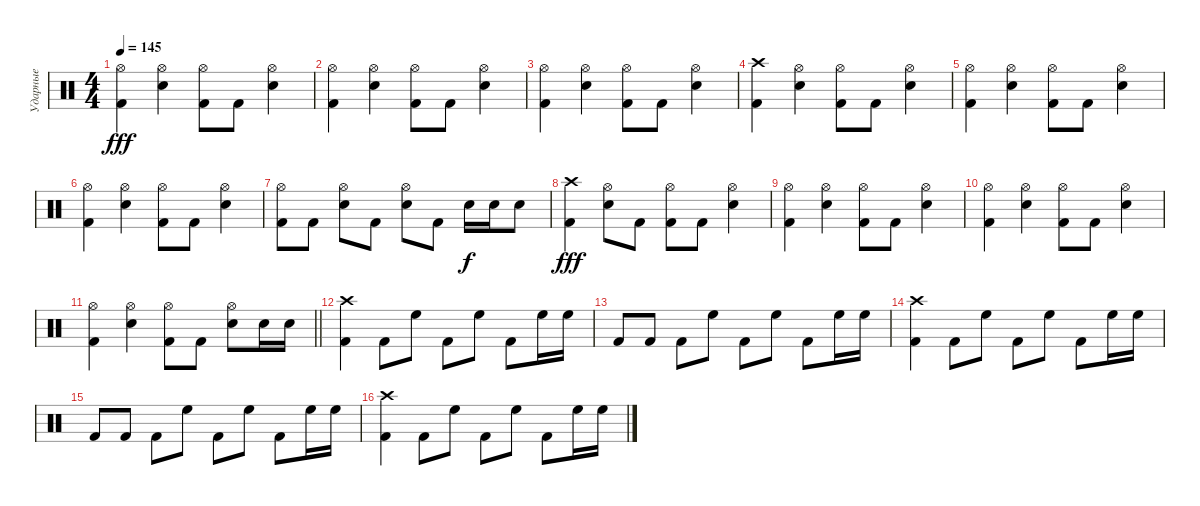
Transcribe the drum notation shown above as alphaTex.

\track ("Ударные" "Ударные") {instrument percussion}
\staff {score}
\articulation defaults
\ts (4 4)
\tempo 145
\clef neutral
\ks c
("Kick (hit) 2" "Hi-Hat (open)").4{dy fff} ("Snare (hit) 2" "Hi-Hat (open)").4 ("Kick (hit) 2" "Hi-Hat (open)").8 "Kick (hit) 2".8 ("Snare (hit) 2" "Hi-Hat (open)").4 |
("Kick (hit) 2" "Hi-Hat (open)").4 ("Snare (hit) 2" "Hi-Hat (open)").4 ("Kick (hit) 2" "Hi-Hat (open)").8 "Kick (hit) 2".8 ("Snare (hit) 2" "Hi-Hat (open)").4 |
("Kick (hit) 2" "Hi-Hat (open)").4 ("Snare (hit) 2" "Hi-Hat (open)").4 ("Kick (hit) 2" "Hi-Hat (open)").8 "Kick (hit) 2".8 ("Snare (hit) 2" "Hi-Hat (open)").4 |
("Kick (hit) 2" "Crash high (hit)").4 ("Snare (hit) 2" "Hi-Hat (open)").4 ("Kick (hit) 2" "Hi-Hat (open)").8 "Kick (hit) 2".8 ("Snare (hit) 2" "Hi-Hat (open)").4 |
("Kick (hit) 2" "Hi-Hat (open)").4 ("Snare (hit) 2" "Hi-Hat (open)").4 ("Kick (hit) 2" "Hi-Hat (open)").8 "Kick (hit) 2".8 ("Snare (hit) 2" "Hi-Hat (open)").4 |
("Kick (hit) 2" "Hi-Hat (open)").4 ("Snare (hit) 2" "Hi-Hat (open)").4 ("Kick (hit) 2" "Hi-Hat (open)").8 "Kick (hit) 2".8 ("Snare (hit) 2" "Hi-Hat (open)").4 |
("Kick (hit) 2" "Hi-Hat (open)").8 "Kick (hit) 2".8 ("Snare (hit) 2" "Hi-Hat (open)").8 "Kick (hit) 2".8 ("Snare (hit) 2" "Hi-Hat (open)").8 "Kick (hit) 2".8 "Snare (hit) 2".16{dy f} "Snare (hit) 2".16 "Snare (hit) 2".8 |
("Kick (hit) 2" "Crash high (hit)").4{dy fff} ("Snare (hit) 2" "Hi-Hat (open)").8 "Kick (hit) 2".8 ("Kick (hit) 2" "Hi-Hat (open)").8 "Kick (hit) 2".8 ("Snare (hit) 2" "Hi-Hat (open)").4 |
("Kick (hit) 2" "Hi-Hat (open)").4 ("Snare (hit) 2" "Hi-Hat (open)").4 ("Kick (hit) 2" "Hi-Hat (open)").8 "Kick (hit) 2".8 ("Snare (hit) 2" "Hi-Hat (open)").4 |
("Kick (hit) 2" "Hi-Hat (open)").4 ("Snare (hit) 2" "Hi-Hat (open)").4 ("Kick (hit) 2" "Hi-Hat (open)").8 "Kick (hit) 2".8 ("Snare (hit) 2" "Hi-Hat (open)").4 |
\barLineRight lightlight
("Kick (hit) 2" "Hi-Hat (open)").4 ("Snare (hit) 2" "Hi-Hat (open)").4 ("Kick (hit) 2" "Hi-Hat (open)").8 "Kick (hit) 2".8 ("Snare (hit) 2" "Hi-Hat (open)").8 "Snare (hit) 2".16 "Snare (hit) 2".16 |
("Kick (hit) 2" "Crash high (hit)").4 "Kick (hit) 2".8 "High Floor Tom (hit)".8 "Kick (hit) 2".8 "High Floor Tom (hit)".8 "Kick (hit) 2".8 "High Floor Tom (hit)".16 "High Floor Tom (hit)".16 |
"Kick (hit) 2".8 "Kick (hit) 2".8 "Kick (hit) 2".8 "High Floor Tom (hit)".8 "Kick (hit) 2".8 "High Floor Tom (hit)".8 "Kick (hit) 2".8 "High Floor Tom (hit)".16 "High Floor Tom (hit)".16 |
("Kick (hit) 2" "Crash high (hit)").4 "Kick (hit) 2".8 "High Floor Tom (hit)".8 "Kick (hit) 2".8 "High Floor Tom (hit)".8 "Kick (hit) 2".8 "High Floor Tom (hit)".16 "High Floor Tom (hit)".16 |
"Kick (hit) 2".8 "Kick (hit) 2".8 "Kick (hit) 2".8 "High Floor Tom (hit)".8 "Kick (hit) 2".8 "High Floor Tom (hit)".8 "Kick (hit) 2".8 "High Floor Tom (hit)".16 "High Floor Tom (hit)".16 |
("Kick (hit) 2" "Crash high (hit)").4 "Kick (hit) 2".8 "High Floor Tom (hit)".8 "Kick (hit) 2".8 "High Floor Tom (hit)".8 "Kick (hit) 2".8 "High Floor Tom (hit)".16 "High Floor Tom (hit)".16
